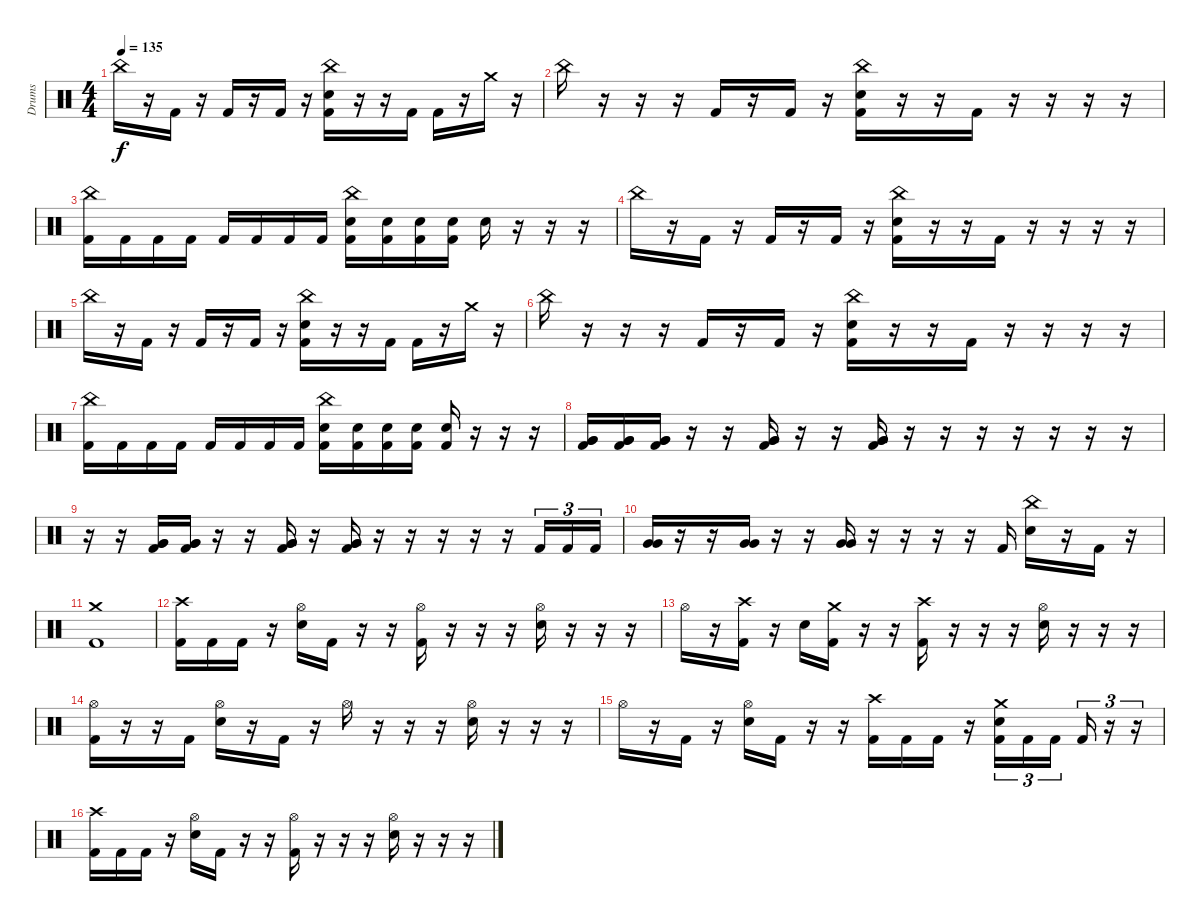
\track ("Drums" "Drums") {instrument percussion}
\staff {score}
\articulation defaults
\ts (4 4)
\tempo 135
\clef neutral
\ks c "China (hit)".16{dy f}
r.16 "Kick (hit) 2".16 r.16 "Kick (hit) 2".16 r.16 "Kick (hit) 2".16 r.16 ("China (hit)" "Electric Snare (hit)" "Kick (hit) 2").16 r.16 r.16 "Kick (hit) 2".16 "Kick (hit) 2".16 r.16 "Crash medium (hit)".16 r.16 |
"China (hit)".16 r.16 r.16 r.16 "Kick (hit) 2".16 r.16 "Kick (hit) 2".16 r.16 ("China (hit)" "Electric Snare (hit)" "Kick (hit) 2").16 r.16 r.16 "Kick (hit) 2".16 r.16 r.16 r.16 r.16 |
("China (hit)" "Kick (hit) 2").16 "Kick (hit) 2".16 "Kick (hit) 2".16 "Kick (hit) 2".16 "Kick (hit) 2".16 "Kick (hit) 2".16 "Kick (hit) 2".16 "Kick (hit) 2".16 ("China (hit)" "Electric Snare (hit)" "Kick (hit) 2").16 ("Electric Snare (hit)" "Kick (hit) 2").16 ("Electric Snare (hit)" "Kick (hit) 2").16 ("Electric Snare (hit)" "Kick (hit) 2").16 "Electric Snare (hit)".16 r.16 r.16 r.16 |
"China (hit)".16 r.16 "Kick (hit) 2".16 r.16 "Kick (hit) 2".16 r.16 "Kick (hit) 2".16 r.16 ("China (hit)" "Electric Snare (hit)" "Kick (hit) 2").16 r.16 r.16 "Kick (hit) 2".16 r.16 r.16 r.16 r.16 |
"China (hit)".16 r.16 "Kick (hit) 2".16 r.16 "Kick (hit) 2".16 r.16 "Kick (hit) 2".16 r.16 ("China (hit)" "Electric Snare (hit)" "Kick (hit) 2").16 r.16 r.16 "Kick (hit) 2".16 "Kick (hit) 2".16 r.16 "Crash medium (hit)".16 r.16 |
"China (hit)".16 r.16 r.16 r.16 "Kick (hit) 2".16 r.16 "Kick (hit) 2".16 r.16 ("China (hit)" "Electric Snare (hit)" "Kick (hit) 2").16 r.16 r.16 "Kick (hit) 2".16 r.16 r.16 r.16 r.16 |
("China (hit)" "Kick (hit) 2").16 "Kick (hit) 2".16 "Kick (hit) 2".16 "Kick (hit) 2".16 "Kick (hit) 2".16 "Kick (hit) 2".16 "Kick (hit) 2".16 "Kick (hit) 2".16 ("China (hit)" "Electric Snare (hit)" "Kick (hit) 2").16 ("Electric Snare (hit)" "Kick (hit) 2").16 ("Electric Snare (hit)" "Kick (hit) 2").16 ("Electric Snare (hit)" "Kick (hit) 2").16 ("Electric Snare (hit)" "Kick (hit) 2").16 r.16 r.16 r.16 |
("Very Low Tom (hit)" "Very Low Tom (hit)" "Kick (hit) 2").16 ("Very Low Tom (hit)" "Very Low Tom (hit)" "Kick (hit) 2").16 ("Very Low Tom (hit)" "Very Low Tom (hit)" "Kick (hit) 2").16 r.16 r.16 ("Very Low Tom (hit)" "Very Low Tom (hit)" "Kick (hit) 2").16 r.16 r.16 ("Very Low Tom (hit)" "Very Low Tom (hit)" "Kick (hit) 2").16 r.16 r.16 r.16 r.16 r.16 r.16 r.16 |
r.16 r.16 ("Very Low Tom (hit)" "Very Low Tom (hit)" "Kick (hit) 2").16 ("Very Low Tom (hit)" "Very Low Tom (hit)" "Kick (hit) 2").16 r.16 r.16 ("Very Low Tom (hit)" "Very Low Tom (hit)" "Kick (hit) 2").16 r.16 ("Very Low Tom (hit)" "Very Low Tom (hit)" "Kick (hit) 2").16 r.16 r.16 r.16 r.16 r.16 "Kick (hit) 2".16{tu (3 2)} "Kick (hit) 2".16{tu (3 2)} "Kick (hit) 2".16{tu (3 2)} |
("Very Low Tom (hit)" "Very Low Tom (hit)").16 r.16 r.16 ("Very Low Tom (hit)" "Very Low Tom (hit)").16 r.16 r.16 ("Very Low Tom (hit)" "Very Low Tom (hit)").16 r.16 r.16 r.16 r.16 "Kick (hit) 2".16 ("China (hit)" "Electric Snare (hit)").16 r.16 "Kick (hit) 2".16 r.16 |
("Crash medium (hit)" "Kick (hit) 2").1 |
("Crash high (hit)" "Kick (hit) 2").16 "Kick (hit) 2".16 "Kick (hit) 2".16 r.16 ("Hi-Hat (open)" "Electric Snare (hit)").16 "Kick (hit) 2".16 r.16 r.16 ("Hi-Hat (open)" "Kick (hit) 2").16 r.16 r.16 r.16 ("Hi-Hat (open)" "Electric Snare (hit)").16 r.16 r.16 r.16 |
"Hi-Hat (open)".16 r.16 ("Crash high (hit)" "Kick (hit) 2").16 r.16 "Electric Snare (hit)".16 ("Crash medium (hit)" "Kick (hit) 2").16 r.16 r.16 ("Crash high (hit)" "Kick (hit) 2").16 r.16 r.16 r.16 ("Hi-Hat (open)" "Electric Snare (hit)").16 r.16 r.16 r.16 |
("Hi-Hat (open)" "Kick (hit) 2").16 r.16 r.16 "Kick (hit) 2".16 ("Hi-Hat (open)" "Electric Snare (hit)").16 r.16 "Kick (hit) 2".16 r.16 "Hi-Hat (open)".16 r.16 r.16 r.16 ("Hi-Hat (open)" "Electric Snare (hit)").16 r.16 r.16 r.16 |
"Hi-Hat (open)".16 r.16 "Kick (hit) 2".16 r.16 ("Hi-Hat (open)" "Electric Snare (hit)").16 "Kick (hit) 2".16 r.16 r.16 ("Crash high (hit)" "Kick (hit) 2").16 "Kick (hit) 2".16 "Kick (hit) 2".16 r.16 ("Crash medium (hit)" "Electric Snare (hit)" "Kick (hit) 2").16{tu (3 2)} "Kick (hit) 2".16{tu (3 2)} "Kick (hit) 2".16{tu (3 2) beam splitsecondary} "Kick (hit) 2".16{tu (3 2)} r.16{tu (3 2)} r.16{tu (3 2)} |
("Crash high (hit)" "Kick (hit) 2").16 "Kick (hit) 2".16 "Kick (hit) 2".16 r.16 ("Hi-Hat (open)" "Electric Snare (hit)").16 "Kick (hit) 2".16 r.16 r.16 ("Hi-Hat (open)" "Kick (hit) 2").16 r.16 r.16 r.16 ("Hi-Hat (open)" "Electric Snare (hit)").16 r.16 r.16 r.16
